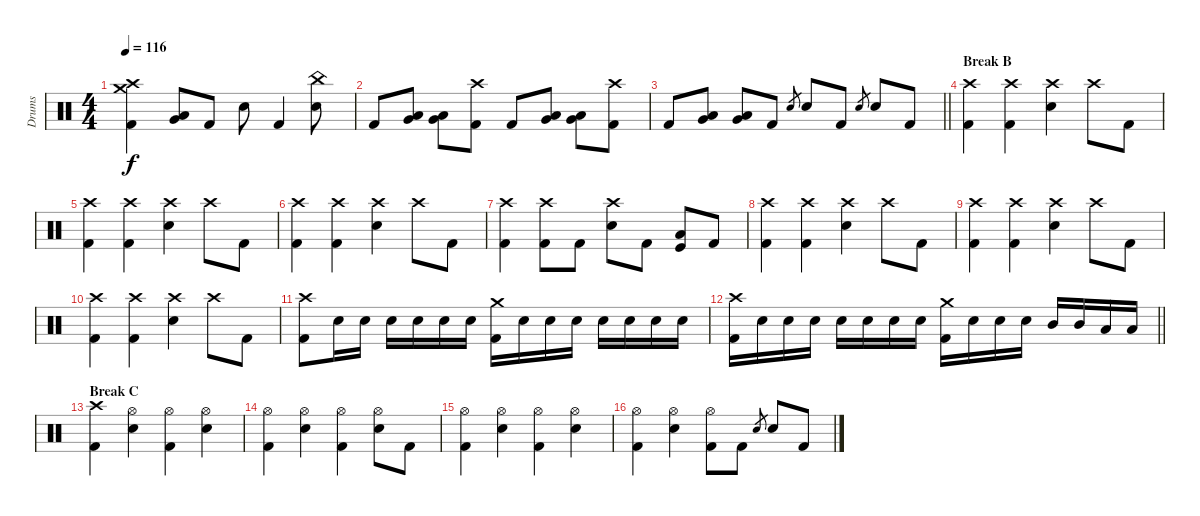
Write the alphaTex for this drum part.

\track ("Drums" "Drums") {instrument percussion}
\staff {score}
\articulation defaults
\ts (4 4)
\tempo 116
\clef neutral
\ks c
("Crash high (hit)" "Crash medium (hit)" "Kick (hit) 2").4{dy f} ("Low Tom (hit)" "Very Low Tom (hit)").8 "Kick (hit) 2".8 "Electric Snare (hit)".8 "Kick (hit) 2".4 ("China (hit)" "Electric Snare (hit)").8 |
"Kick (hit) 2".8 ("Low Tom (hit)" "Very Low Tom (hit)").8 ("Very Low Tom (hit)" "Low Floor Tom (hit)").8 ("Crash high (hit)" "Kick (hit) 2").8 "Kick (hit) 2".8 ("Low Tom (hit)" "Very Low Tom (hit)").8 ("Very Low Tom (hit)" "Low Floor Tom (hit)").8 ("Crash high (hit)" "Kick (hit) 2").8 |
\barLineRight lightlight "Kick (hit) 2".8
("Low Tom (hit)" "Very Low Tom (hit)").8 ("Very Low Tom (hit)" "Low Floor Tom (hit)").8 "Kick (hit) 2".8 "Electric Snare (hit)".8{gr} "Electric Snare (hit)".8 "Kick (hit) 2".8 "Electric Snare (hit)".8{gr} "Electric Snare (hit)".8 "Kick (hit) 2".8 |
\section ("" "Break B")
("Crash high (hit)" "Kick (hit) 2").4 ("Crash high (hit)" "Kick (hit) 2").4 ("Crash high (hit)" "Electric Snare (hit)").4 "Crash high (hit)".8 "Kick (hit) 2".8 |
("Crash high (hit)" "Kick (hit) 2").4 ("Crash high (hit)" "Kick (hit) 2").4 ("Crash high (hit)" "Electric Snare (hit)").4 "Crash high (hit)".8 "Kick (hit) 2".8 |
("Crash high (hit)" "Kick (hit) 2").4 ("Crash high (hit)" "Kick (hit) 2").4 ("Crash high (hit)" "Electric Snare (hit)").4 "Crash high (hit)".8 "Kick (hit) 2".8 |
("Crash high (hit)" "Kick (hit) 2").4 ("Crash high (hit)" "Kick (hit) 2").8 "Kick (hit) 2".8 ("Crash high (hit)" "Electric Snare (hit)").8 "Kick (hit) 2".8 ("Low Tom (hit)" "Kick (hit)").8 "Kick (hit) 2".8 |
("Crash high (hit)" "Kick (hit) 2").4 ("Crash high (hit)" "Kick (hit) 2").4 ("Crash high (hit)" "Electric Snare (hit)").4 "Crash high (hit)".8 "Kick (hit) 2".8 |
("Crash high (hit)" "Kick (hit) 2").4 ("Crash high (hit)" "Kick (hit) 2").4 ("Crash high (hit)" "Electric Snare (hit)").4 "Crash high (hit)".8 "Kick (hit) 2".8 |
("Crash high (hit)" "Kick (hit) 2").4 ("Crash high (hit)" "Kick (hit) 2").4 ("Crash high (hit)" "Electric Snare (hit)").4 "Crash high (hit)".8 "Kick (hit) 2".8 |
("Crash high (hit)" "Kick (hit) 2").8 "Electric Snare (hit)".16 "Electric Snare (hit)".16 "Electric Snare (hit)".16 "Electric Snare (hit)".16 "Electric Snare (hit)".16 "Electric Snare (hit)".16 ("Crash medium (hit)" "Kick (hit) 2").16 "Electric Snare (hit)".16 "Electric Snare (hit)".16 "Electric Snare (hit)".16 "Electric Snare (hit)".16 "Electric Snare (hit)".16 "Electric Snare (hit)".16 "Electric Snare (hit)".16 |
\barLineRight lightlight
("Crash high (hit)" "Kick (hit) 2").16 "Electric Snare (hit)".16 "Electric Snare (hit)".16 "Electric Snare (hit)".16 "Electric Snare (hit)".16 "Electric Snare (hit)".16 "Electric Snare (hit)".16 "Electric Snare (hit)".16 ("Crash medium (hit)" "Kick (hit) 2").16 "Electric Snare (hit)".16 "Electric Snare (hit)".16 "Electric Snare (hit)".16 "Mid Tom (hit)".16 "Mid Tom (hit)".16 "Low Tom (hit)".16 "Low Tom (hit)".16 |
\section ("" "Break C")
("Crash high (hit)" "Kick (hit) 2").4 ("Electric Snare (hit)" "Hi-Hat (open)").4 ("Hi-Hat (open)" "Kick (hit) 2").4 ("Electric Snare (hit)" "Hi-Hat (open)").4 |
("Hi-Hat (open)" "Kick (hit) 2").4 ("Electric Snare (hit)" "Hi-Hat (open)").4 ("Hi-Hat (open)" "Kick (hit) 2").4 ("Electric Snare (hit)" "Hi-Hat (open)").8 "Kick (hit) 2".8 |
("Hi-Hat (open)" "Kick (hit) 2").4 ("Electric Snare (hit)" "Hi-Hat (open)").4 ("Hi-Hat (open)" "Kick (hit) 2").4 ("Electric Snare (hit)" "Hi-Hat (open)").4 |
("Hi-Hat (open)" "Kick (hit) 2").4 ("Electric Snare (hit)" "Hi-Hat (open)").4 ("Hi-Hat (open)" "Kick (hit) 2").8 "Kick (hit) 2".8 "Electric Snare (hit)".8{gr} "Electric Snare (hit)".8 "Kick (hit) 2".8
